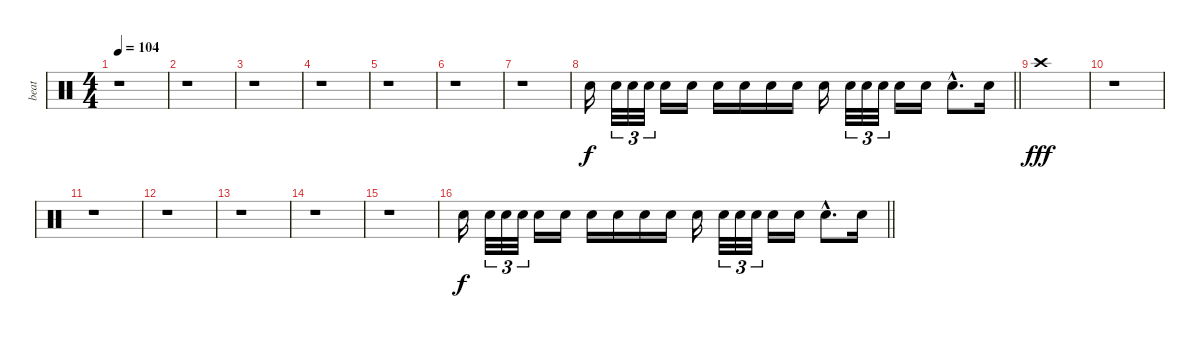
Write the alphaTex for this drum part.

\track ("beat" "beat") {instrument percussion}
\staff {score}
\articulation defaults
\ts (4 4)
\tempo 104
\clef neutral
\ks c
r.1{dy f} |
r.1 |
r.1 |
r.1 |
r.1 |
r.1 |
r.1 |
\barLineRight lightlight "Electric Snare (hit)".16 "Electric Snare (hit)".32{tu (3 2)} "Electric Snare (hit)".32{tu (3 2)} "Electric Snare (hit)".32{tu (3 2)} "Electric Snare (hit)".16 "Electric Snare (hit)".16 "Electric Snare (hit)".16 "Electric Snare (hit)".16 "Electric Snare (hit)".16 "Electric Snare (hit)".16 "Electric Snare (hit)".16 "Electric Snare (hit)".32{tu (3 2)} "Electric Snare (hit)".32{tu (3 2)} "Electric Snare (hit)".32{tu (3 2)} "Electric Snare (hit)".16 "Electric Snare (hit)".16 "Electric Snare (hit)"{hac}.8{d} "Electric Snare (hit)".16
|
"Crash high (hit)".1{dy fff} |
r.1 |
r.1 |
r.1 |
r.1 |
r.1 |
r.1 |
\barLineRight lightlight "Electric Snare (hit)".16{dy f} "Electric Snare (hit)".32{tu (3 2)} "Electric Snare (hit)".32{tu (3 2)} "Electric Snare (hit)".32{tu (3 2)} "Electric Snare (hit)".16 "Electric Snare (hit)".16 "Electric Snare (hit)".16 "Electric Snare (hit)".16 "Electric Snare (hit)".16 "Electric Snare (hit)".16 "Electric Snare (hit)".16 "Electric Snare (hit)".32{tu (3 2)} "Electric Snare (hit)".32{tu (3 2)} "Electric Snare (hit)".32{tu (3 2)} "Electric Snare (hit)".16 "Electric Snare (hit)".16 "Electric Snare (hit)"{hac}.8{d} "Electric Snare (hit)".16
